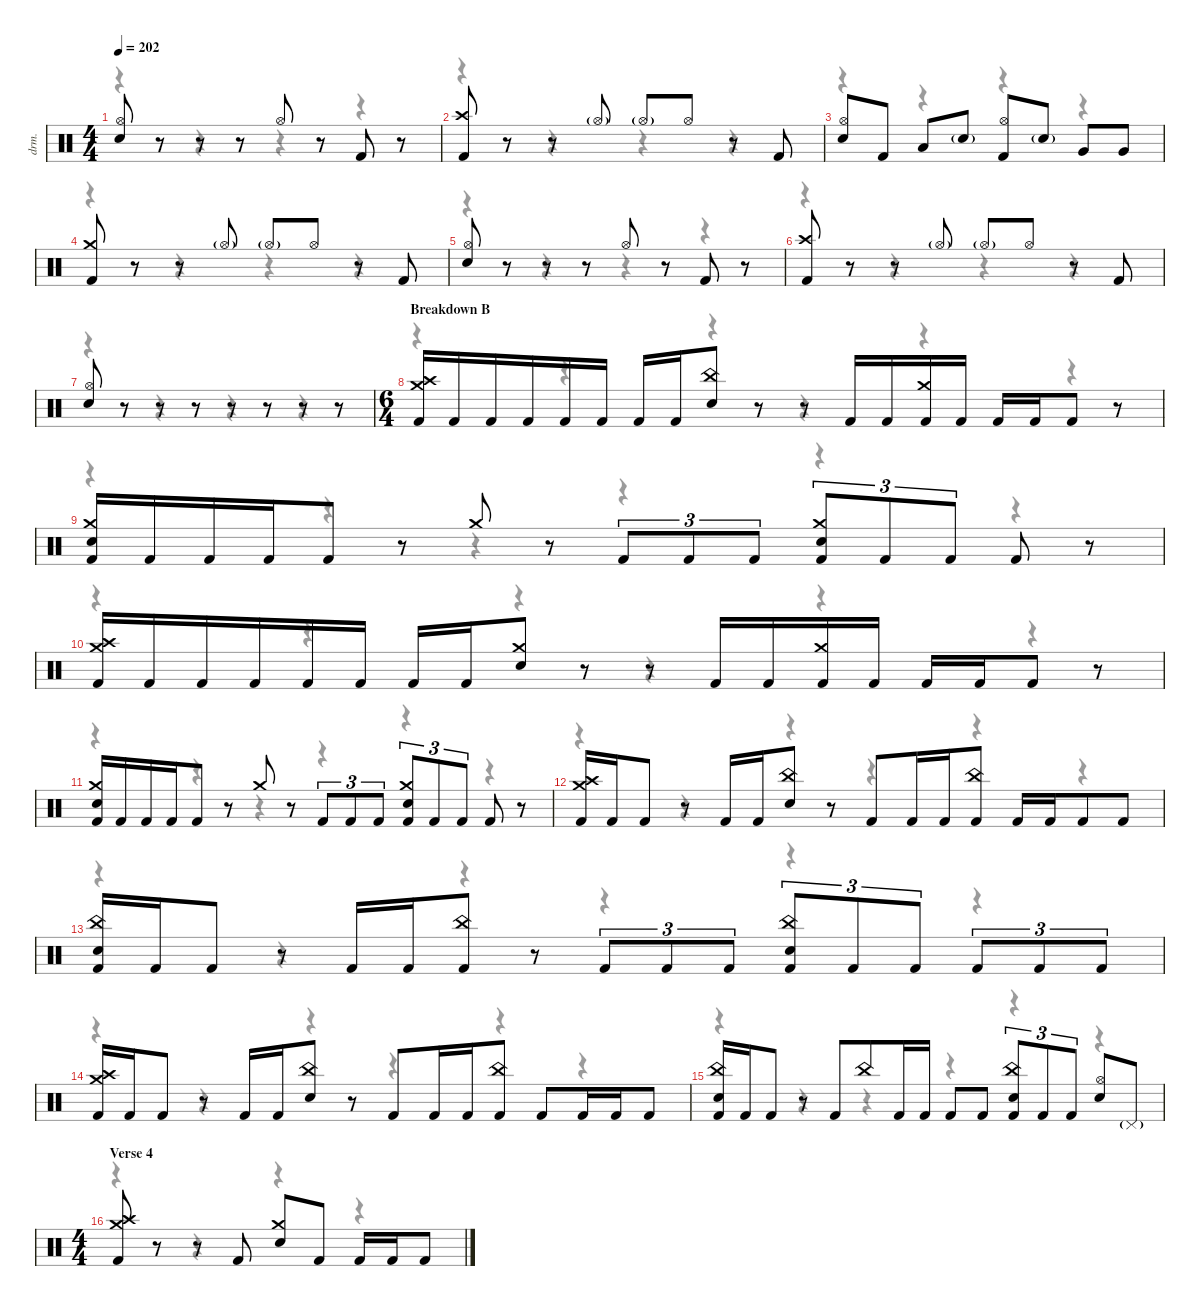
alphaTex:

\defaultSystemsLayout 4
\hideDynamics
\bracketExtendMode nobrackets
\track ("Alex Ballew" "drm.") {instrument percussion}
\staff {score}
\articulation defaults
\voice
\ts (4 4)
\tempo 202
\clef neutral
\ks c
("Hi-Hat (open)" "Snare (hit) 2").8{dy f beam Up} r.8{beam Up} r.8{beam Up} r.8{beam Up} "Hi-Hat (open)".8{beam Up} r.8{beam Up} "Kick (hit) 2".8{beam Up} r.8{beam Up} |
("Crash high (hit)" "Kick (hit) 2").8{beam Up} r.8{beam Up} r.8{beam Up} "Hi-Hat (open)"{g}.8{dy mf beam Up} "Hi-Hat (open)"{g}.8{dy f beam Up} "Hi-Hat (open)".8{beam Up} r.8{beam Up} "Kick (hit) 2".8{beam Up} |
("Hi-Hat (open)" "Snare (hit) 2").8{beam Up} "Kick (hit) 2".8{beam Up} "Low Tom (hit)".8{beam Up} "Snare (hit) 2"{g}.8{beam Up} ("Hi-Hat (open)" "Kick (hit) 2").8{beam Up} "Snare (hit) 2"{g}.8{beam Up} "Very Low Tom (hit)".8{beam Up} "Very Low Tom (hit)".8{beam Up} |
("Crash medium (hit)" "Kick (hit) 2").8{beam Up} r.8{beam Up} r.8{beam Up} "Hi-Hat (open)"{g}.8{dy mf beam Up} "Hi-Hat (open)"{g}.8{dy f beam Up} "Hi-Hat (open)".8{beam Up} r.8{beam Up} "Kick (hit) 2".8{beam Up} |
("Hi-Hat (open)" "Snare (hit) 2").8{beam Up} r.8{beam Up} r.8{beam Up} r.8{beam Up} "Hi-Hat (open)".8{beam Up} r.8{beam Up} "Kick (hit) 2".8{beam Up} r.8{beam Up} |
("Crash high (hit)" "Kick (hit) 2").8{beam Up} r.8{beam Up} r.8{beam Up} "Hi-Hat (open)"{g}.8{dy mf beam Up} "Hi-Hat (open)"{g}.8{dy f beam Up} "Hi-Hat (open)".8{beam Up} r.8{beam Up} "Kick (hit) 2".8{beam Up} |
("Hi-Hat (open)" "Snare (hit) 2").8{beam Up} r.8{beam Up} r.8{beam Up} r.8{beam Up} r.8{beam Up} r.8{beam Up} r.8{beam Up} r.8{beam Up} |
\ts (6 4)
\beaming (8 3 3 3 3)
\section ("" "Breakdown B")
("Crash medium (hit)" "Crash high (hit)" "Kick (hit) 2").16{beam Up} "Kick (hit) 2".16{beam Up} "Kick (hit) 2".16{beam Up} "Kick (hit) 2".16{beam Up} "Kick (hit) 2".16{beam Up} "Kick (hit) 2".16{beam Up} "Kick (hit) 2".16{beam Up} "Kick (hit) 2".16{beam Up} ("China (hit)" "Snare (hit) 2").8{beam Up} r.8{beam Up} r.8{beam Up} "Kick (hit) 2".16{beam Up} "Kick (hit) 2".16{beam Up} ("Crash medium (hit)" "Kick (hit) 2").16{beam Up} "Kick (hit) 2".16{beam Up} "Kick (hit) 2".16{beam Up} "Kick (hit) 2".16{beam Up} "Kick (hit) 2".8{beam Up} r.8{beam Up} |
("Crash medium (hit)" "Snare (hit) 2" "Kick (hit) 2").16{beam Up} "Kick (hit) 2".16{beam Up} "Kick (hit) 2".16{beam Up} "Kick (hit) 2".16{beam Up} "Kick (hit) 2".8{beam Up} r.8{beam Up} "Crash medium (hit)".8{beam Up} r.8{beam Up} "Kick (hit) 2".8{tu (3 2) beam Up} "Kick (hit) 2".8{tu (3 2) beam Up} "Kick (hit) 2".8{tu (3 2) beam Up} ("Crash medium (hit)" "Snare (hit) 2" "Kick (hit) 2").8{tu (3 2) beam Up} "Kick (hit) 2".8{tu (3 2) beam Up} "Kick (hit) 2".8{tu (3 2) beam Up} "Kick (hit) 2".8{beam Up} r.8{beam Up} |
("Crash medium (hit)" "Crash high (hit)" "Kick (hit) 2").16{beam Up} "Kick (hit) 2".16{beam Up} "Kick (hit) 2".16{beam Up} "Kick (hit) 2".16{beam Up} "Kick (hit) 2".16{beam Up} "Kick (hit) 2".16{beam Up} "Kick (hit) 2".16{beam Up} "Kick (hit) 2".16{beam Up} ("Crash medium (hit)" "Snare (hit) 2").8{beam Up} r.8{beam Up} r.8{beam Up} "Kick (hit) 2".16{beam Up} "Kick (hit) 2".16{beam Up} ("Crash medium (hit)" "Kick (hit) 2").16{beam Up} "Kick (hit) 2".16{beam Up} "Kick (hit) 2".16{beam Up} "Kick (hit) 2".16{beam Up} "Kick (hit) 2".8{beam Up} r.8{beam Up} |
("Crash medium (hit)" "Snare (hit) 2" "Kick (hit) 2").16{beam Up} "Kick (hit) 2".16{beam Up} "Kick (hit) 2".16{beam Up} "Kick (hit) 2".16{beam Up} "Kick (hit) 2".8{beam Up} r.8{beam Up} "Crash medium (hit)".8{beam Up} r.8{beam Up} "Kick (hit) 2".8{tu (3 2) beam Up} "Kick (hit) 2".8{tu (3 2) beam Up} "Kick (hit) 2".8{tu (3 2) beam Up} ("Crash medium (hit)" "Snare (hit) 2" "Kick (hit) 2").8{tu (3 2) beam Up} "Kick (hit) 2".8{tu (3 2) beam Up} "Kick (hit) 2".8{tu (3 2) beam Up} "Kick (hit) 2".8{beam Up} r.8{beam Up} |
("Crash medium (hit)" "Crash high (hit)" "Kick (hit) 2").16{beam Up} "Kick (hit) 2".16{beam Up} "Kick (hit) 2".8{beam Up} r.8{beam Up} "Kick (hit) 2".16{beam Up} "Kick (hit) 2".16{beam Up} ("China (hit)" "Snare (hit) 2").8{beam Up} r.8{beam Up} "Kick (hit) 2".8{beam Up} "Kick (hit) 2".16{beam Up} "Kick (hit) 2".16{beam Up} ("China (hit)" "Kick (hit) 2").8{beam Up} "Kick (hit) 2".16{beam Up} "Kick (hit) 2".16{beam Up} "Kick (hit) 2".8{beam Up} "Kick (hit) 2".8{beam Up} |
("China (hit)" "Snare (hit) 2" "Kick (hit) 2").16{beam Up} "Kick (hit) 2".16{beam Up} "Kick (hit) 2".8{beam Up} r.8{beam Up} "Kick (hit) 2".16{beam Up} "Kick (hit) 2".16{beam Up} ("China (hit)" "Kick (hit) 2").8{beam Up} r.8{beam Up} "Kick (hit) 2".8{tu (3 2) beam Up} "Kick (hit) 2".8{tu (3 2) beam Up} "Kick (hit) 2".8{tu (3 2) beam Up} ("China (hit)" "Snare (hit) 2" "Kick (hit) 2").8{tu (3 2) beam Up} "Kick (hit) 2".8{tu (3 2) beam Up} "Kick (hit) 2".8{tu (3 2) beam Up} "Kick (hit) 2".8{tu (3 2) beam Up} "Kick (hit) 2".8{tu (3 2) beam Up} "Kick (hit) 2".8{tu (3 2) beam Up} |
("Crash medium (hit)" "Crash high (hit)" "Kick (hit) 2").16{beam Up} "Kick (hit) 2".16{beam Up} "Kick (hit) 2".8{beam Up} r.8{beam Up} "Kick (hit) 2".16{beam Up} "Kick (hit) 2".16{beam Up} ("China (hit)" "Snare (hit) 2").8{beam Up} r.8{beam Up} "Kick (hit) 2".8{beam Up} "Kick (hit) 2".16{beam Up} "Kick (hit) 2".16{beam Up} ("China (hit)" "Kick (hit) 2").8{beam Up} "Kick (hit) 2".8{beam Up} "Kick (hit) 2".16{beam Up} "Kick (hit) 2".16{beam Up} "Kick (hit) 2".8{beam Up} |
("China (hit)" "Snare (hit) 2" "Kick (hit) 2").16{beam Up} "Kick (hit) 2".16{beam Up} "Kick (hit) 2".8{beam Up} r.8{beam Up} "Kick (hit) 2".8{beam Up} "China (hit)".8{beam Up} "Kick (hit) 2".16{beam Up} "Kick (hit) 2".16{beam Up} "Kick (hit) 2".8{beam Up} "Kick (hit) 2".8{beam Up} ("China (hit)" "Snare (hit) 2" "Kick (hit) 2").8{tu (3 2) beam Up} "Kick (hit) 2".8{tu (3 2) beam Up} "Kick (hit) 2".8{tu (3 2) beam Up} ("Hi-Hat (open)" "Snare (hit) 2").8{beam Up} "Pedal Hi-Hat (hit)"{g}.8{dy mf beam Up} |
\ts (4 4)
\beaming (8 2 2 2 2)
\section ("" "Verse 4")
("Crash medium (hit)" "Crash high (hit)" "Kick (hit) 2").8{dy f beam Up} r.8{beam Up} r.8{beam Up} "Kick (hit) 2".8{beam Up} ("Crash medium (hit)" "Snare (hit) 2").8{beam Up} "Kick (hit) 2".8{beam Up} "Kick (hit) 2".16{beam Up} "Kick (hit) 2".16{beam Up} "Kick (hit) 2".8{beam Up}
\voice
\clef neutral
\ottava regular
\simile none
\ks c
r.4{dy mf beam Down} r.4{beam Down} r.4{beam Down} r.4{beam Down} |
r.4{beam Down} r.4{beam Down} r.4{beam Down} r.4{beam Down} |
r.4{beam Down} r.4{beam Down} r.4{beam Down} r.4{beam Down} |
r.4{beam Down} r.4{beam Down} r.4{beam Down} r.4{beam Down} |
r.4{beam Down} r.4{beam Down} r.4{beam Down} r.4{beam Down} |
r.4{beam Down} r.4{beam Down} r.4{beam Down} r.4{beam Down} |
r.4{beam Down} r.4{beam Down} r.4{beam Down} r.4{beam Down} |
r.4{beam Down} r.4{beam Down} r.4{beam Down} r.4{beam Down} r.4{beam Down} r.4{beam Down} |
r.4{beam Down} r.4{beam Down} r.4{beam Down} r.4{beam Down} r.4{beam Down} r.4{beam Down} |
r.4{beam Down} r.4{beam Down} r.4{beam Down} r.4{beam Down} r.4{beam Down} r.4{beam Down} |
r.4{beam Down} r.4{beam Down} r.4{beam Down} r.4{beam Down} r.4{beam Down} r.4{beam Down} |
r.4{beam Down} r.4{beam Down} r.4{beam Down} r.4{beam Down} r.4{beam Down} r.4{beam Down} |
r.4{beam Down} r.4{beam Down} r.4{beam Down} r.4{beam Down} r.4{beam Down} r.4{beam Down} |
r.4{beam Down} r.4{beam Down} r.4{beam Down} r.4{beam Down} r.4{beam Down} r.4{beam Down} |
r.4{beam Down} r.4{beam Down} r.4{beam Down} r.4{beam Down} r.4{beam Down} r.4{beam Down} |
r.4{beam Down} r.4{beam Down} r.4{beam Down} r.4{beam Down}
